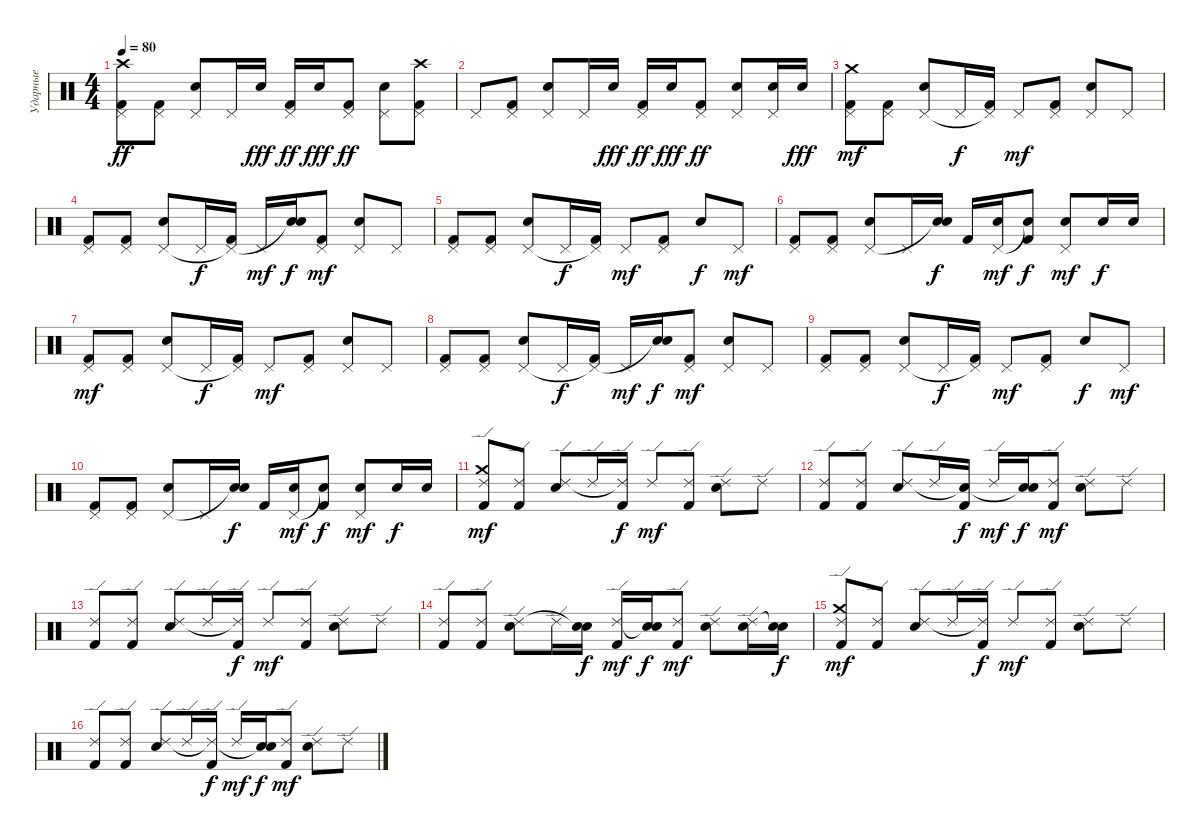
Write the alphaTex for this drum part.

\track ("Ударные" "Ударные") {instrument percussion}
\staff {score}
\articulation defaults
\ts (4 4)
\tempo 80
\clef neutral
\ks c
("Crash high (hit)" "Kick (hit) 2" "Pedal Hi-Hat (hit)").8{dy ff} ("Kick (hit) 2" "Pedal Hi-Hat (hit)").8 ("Snare (hit) 2" "Pedal Hi-Hat (hit)").8 "Pedal Hi-Hat (hit)".16 "Snare (hit) 2".16{dy fff} ("Kick (hit) 2" "Pedal Hi-Hat (hit)").16{dy ff} "Snare (hit) 2".16{dy fff} ("Kick (hit) 2" "Pedal Hi-Hat (hit)").8{dy ff} ("Snare (hit) 2" "Pedal Hi-Hat (hit)").8 ("Crash high (hit)" "Kick (hit) 2" "Pedal Hi-Hat (hit)").8 |
"Pedal Hi-Hat (hit)".8 ("Kick (hit) 2" "Pedal Hi-Hat (hit)").8 ("Snare (hit) 2" "Pedal Hi-Hat (hit)").8 "Pedal Hi-Hat (hit)".16 "Snare (hit) 2".16{dy fff} ("Kick (hit) 2" "Pedal Hi-Hat (hit)").16{dy ff} "Snare (hit) 2".16{dy fff} ("Kick (hit) 2" "Pedal Hi-Hat (hit)").8{dy ff} ("Snare (hit) 2" "Pedal Hi-Hat (hit)").8 ("Snare (hit) 2" "Pedal Hi-Hat (hit)").16 "Snare (hit) 2".16{dy fff} |
("Crash medium (hit)" "Kick (hit) 2" "Pedal Hi-Hat (hit)").8{dy mf volume 14} ("Kick (hit) 2" "Pedal Hi-Hat (hit)").8 ("Snare (hit) 2" "Pedal Hi-Hat (hit)").8 "Pedal Hi-Hat (hit)".16{dy f} ("Kick (hit) 2" "Pedal Hi-Hat (hit)"{t}).16 "Pedal Hi-Hat (hit)".8{dy mf} ("Kick (hit) 2" "Pedal Hi-Hat (hit)").8 ("Snare (hit) 2" "Pedal Hi-Hat (hit)").8 "Pedal Hi-Hat (hit)".8 |
("Kick (hit) 2" "Pedal Hi-Hat (hit)").8 ("Kick (hit) 2" "Pedal Hi-Hat (hit)").8 ("Snare (hit) 2" "Pedal Hi-Hat (hit)").8 "Pedal Hi-Hat (hit)".16{dy f} ("Kick (hit) 2" "Pedal Hi-Hat (hit)"{t}).16 "Pedal Hi-Hat (hit)".16{dy mf} ("Snare (hit) 2" "Snare (hit)"{t}).16{dy f} ("Kick (hit) 2" "Pedal Hi-Hat (hit)").8{dy mf} ("Snare (hit) 2" "Pedal Hi-Hat (hit)").8 "Pedal Hi-Hat (hit)".8 |
("Kick (hit) 2" "Pedal Hi-Hat (hit)").8 ("Kick (hit) 2" "Pedal Hi-Hat (hit)").8 ("Snare (hit) 2" "Pedal Hi-Hat (hit)").8 "Pedal Hi-Hat (hit)".16{dy f} ("Kick (hit) 2" "Pedal Hi-Hat (hit)"{t}).16 "Pedal Hi-Hat (hit)".8{dy mf} ("Kick (hit) 2" "Pedal Hi-Hat (hit)").8 "Snare (hit) 2".8{dy f} "Pedal Hi-Hat (hit)".8{dy mf} |
("Kick (hit) 2" "Pedal Hi-Hat (hit)").8 ("Kick (hit) 2" "Pedal Hi-Hat (hit)").8 ("Snare (hit) 2" "Pedal Hi-Hat (hit)").8 "Pedal Hi-Hat (hit)".16 ("Snare (hit) 2" "Snare (hit)"{t}).16{dy f} "Kick (hit) 2".16 ("Snare (hit) 2" "Pedal Hi-Hat (hit)").16{dy mf} ("Kick (hit) 2" "Snare (hit)"{t}).8{dy f} ("Snare (hit) 2" "Pedal Hi-Hat (hit)").8{dy mf} "Snare (hit) 2".16{dy f} "Snare (hit) 2".16 |
("Kick (hit) 2" "Pedal Hi-Hat (hit)").8{dy mf} ("Kick (hit) 2" "Pedal Hi-Hat (hit)").8 ("Snare (hit) 2" "Pedal Hi-Hat (hit)").8 "Pedal Hi-Hat (hit)".16{dy f} ("Kick (hit) 2" "Pedal Hi-Hat (hit)"{t}).16 "Pedal Hi-Hat (hit)".8{dy mf} ("Kick (hit) 2" "Pedal Hi-Hat (hit)").8 ("Snare (hit) 2" "Pedal Hi-Hat (hit)").8 "Pedal Hi-Hat (hit)".8 |
("Kick (hit) 2" "Pedal Hi-Hat (hit)").8 ("Kick (hit) 2" "Pedal Hi-Hat (hit)").8 ("Snare (hit) 2" "Pedal Hi-Hat (hit)").8 "Pedal Hi-Hat (hit)".16{dy f} ("Kick (hit) 2" "Pedal Hi-Hat (hit)"{t}).16 "Pedal Hi-Hat (hit)".16{dy mf} ("Snare (hit) 2" "Snare (hit)"{t}).16{dy f} ("Kick (hit) 2" "Pedal Hi-Hat (hit)").8{dy mf} ("Snare (hit) 2" "Pedal Hi-Hat (hit)").8 "Pedal Hi-Hat (hit)".8 |
("Kick (hit) 2" "Pedal Hi-Hat (hit)").8 ("Kick (hit) 2" "Pedal Hi-Hat (hit)").8 ("Snare (hit) 2" "Pedal Hi-Hat (hit)").8 "Pedal Hi-Hat (hit)".16{dy f} ("Kick (hit) 2" "Pedal Hi-Hat (hit)"{t}).16 "Pedal Hi-Hat (hit)".8{dy mf} ("Kick (hit) 2" "Pedal Hi-Hat (hit)").8 "Snare (hit) 2".8{dy f} "Pedal Hi-Hat (hit)".8{dy mf} |
("Kick (hit) 2" "Pedal Hi-Hat (hit)").8 ("Kick (hit) 2" "Pedal Hi-Hat (hit)").8 ("Snare (hit) 2" "Pedal Hi-Hat (hit)").8 "Pedal Hi-Hat (hit)".16 ("Snare (hit) 2" "Snare (hit)"{t}).16{dy f} "Kick (hit) 2".16 ("Snare (hit) 2" "Pedal Hi-Hat (hit)").16{dy mf} ("Kick (hit) 2" "Snare (hit)"{t}).8{dy f} ("Snare (hit) 2" "Pedal Hi-Hat (hit)").8{dy mf} "Snare (hit) 2".16{dy f} "Snare (hit) 2".16 |
("Crash medium (hit)" "Kick (hit) 2" "Ride (edge) 2").8{dy mf} ("Kick (hit) 2" "Ride (edge) 2").8 ("Snare (hit) 2" "Ride (edge) 2").8 "Ride (edge) 2".16 ("Kick (hit) 2" "Ride (edge) 2"{t}).16{dy f} "Ride (edge) 2".8{dy mf} ("Kick (hit) 2" "Ride (edge) 2").8 ("Snare (hit) 2" "Ride (edge) 2").8 "Ride (edge) 2".8 |
("Kick (hit) 2" "Ride (edge) 2").8 ("Kick (hit) 2" "Ride (edge) 2").8 ("Snare (hit) 2" "Ride (edge) 2").8 "Ride (edge) 2".16 ("Kick (hit) 2" "Snare (hit)"{t}).16{dy f} "Ride (edge) 2".16{dy mf} ("Snare (hit) 2" "Snare (hit)"{t}).16{dy f} ("Kick (hit) 2" "Ride (edge) 2").8{dy mf} ("Snare (hit) 2" "Ride (edge) 2").8 "Ride (edge) 2".8 |
("Kick (hit) 2" "Ride (edge) 2").8 ("Kick (hit) 2" "Ride (edge) 2").8 ("Snare (hit) 2" "Ride (edge) 2").8 "Ride (edge) 2".16 ("Kick (hit) 2" "Ride (edge) 2"{t}).16{dy f} "Ride (edge) 2".8{dy mf} ("Kick (hit) 2" "Ride (edge) 2").8 ("Snare (hit) 2" "Ride (edge) 2").8 "Ride (edge) 2".8 |
("Kick (hit) 2" "Ride (edge) 2").8 ("Kick (hit) 2" "Ride (edge) 2").8 ("Snare (hit) 2" "Ride (edge) 2").8 "Ride (edge) 2".16 ("Snare (hit) 2" "Snare (hit)"{t}).16{dy f} ("Kick (hit) 2" "Ride (edge) 2").16{dy mf} ("Snare (hit) 2" "Snare (hit)"{t}).16{dy f} ("Kick (hit) 2" "Ride (edge) 2").8{dy mf} ("Snare (hit) 2" "Ride (edge) 2").8 ("Snare (hit) 2" "Ride (edge) 2").16 ("Snare (hit) 2" "Snare (hit)"{t}).16{dy f} |
("Crash medium (hit)" "Kick (hit) 2" "Ride (edge) 2").8{dy mf} ("Kick (hit) 2" "Ride (edge) 2").8 ("Snare (hit) 2" "Ride (edge) 2").8 "Ride (edge) 2".16 ("Kick (hit) 2" "Ride (edge) 2"{t}).16{dy f} "Ride (edge) 2".8{dy mf} ("Kick (hit) 2" "Ride (edge) 2").8 ("Snare (hit) 2" "Ride (edge) 2").8 "Ride (edge) 2".8 |
("Kick (hit) 2" "Ride (edge) 2").8 ("Kick (hit) 2" "Ride (edge) 2").8 ("Snare (hit) 2" "Ride (edge) 2").8 "Ride (edge) 2".16 ("Kick (hit) 2" "Ride (edge) 2"{t}).16{dy f} "Ride (edge) 2".16{dy mf} ("Snare (hit) 2" "Snare (hit)"{t}).16{dy f} ("Kick (hit) 2" "Ride (edge) 2").8{dy mf} ("Snare (hit) 2" "Ride (edge) 2").8 "Ride (edge) 2".8
